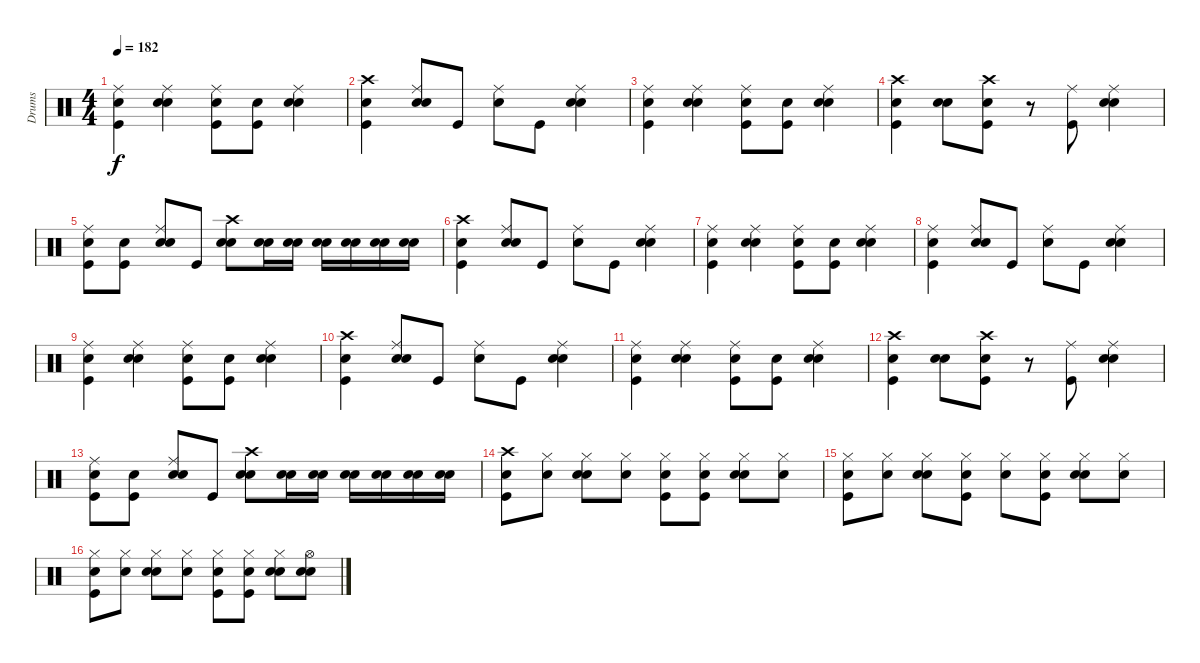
\track ("Drums" "Drums") {instrument percussion}
\staff {score}
\articulation defaults
\ts (4 4)
\tempo 182
\clef neutral
\ks c
("Snare (hit)" "Kick (hit)" "Ride (middle)").4{dy f} ("Snare (hit)" "Electric Snare (hit)" "Ride (middle)").4 ("Snare (hit)" "Kick (hit)" "Ride (middle)").8 ("Snare (hit)" "Kick (hit)").8 ("Snare (hit)" "Electric Snare (hit)" "Ride (middle)").4 |
("Snare (hit)" "Kick (hit)" "Crash high (hit)").4 ("Snare (hit)" "Electric Snare (hit)" "Ride (middle)").8 "Kick (hit)".8 ("Snare (hit)" "Ride (middle)").8 "Kick (hit)".8 ("Snare (hit)" "Electric Snare (hit)" "Ride (middle)").4 |
("Snare (hit)" "Kick (hit)" "Ride (middle)").4 ("Snare (hit)" "Electric Snare (hit)" "Ride (middle)").4 ("Snare (hit)" "Kick (hit)" "Ride (middle)").8 ("Snare (hit)" "Kick (hit)").8 ("Snare (hit)" "Electric Snare (hit)" "Ride (middle)").4 |
("Snare (hit)" "Kick (hit)" "Crash high (hit)").4 ("Snare (hit)" "Electric Snare (hit)").8 ("Snare (hit)" "Kick (hit)" "Crash high (hit)").8 r.8 ("Kick (hit)" "Ride (middle)").8 ("Snare (hit)" "Electric Snare (hit)" "Ride (middle)").4 |
("Snare (hit)" "Kick (hit)" "Ride (middle)").8 ("Snare (hit)" "Kick (hit)").8 ("Snare (hit)" "Electric Snare (hit)" "Ride (middle)").8 "Kick (hit)".8 ("Snare (hit)" "Electric Snare (hit)" "Crash high (hit)").8 ("Snare (hit)" "Electric Snare (hit)").16 ("Snare (hit)" "Electric Snare (hit)").16 ("Snare (hit)" "Electric Snare (hit)").16 ("Snare (hit)" "Electric Snare (hit)").16 ("Snare (hit)" "Electric Snare (hit)").16 ("Snare (hit)" "Electric Snare (hit)").16 |
("Snare (hit)" "Kick (hit)" "Crash high (hit)").4 ("Snare (hit)" "Electric Snare (hit)" "Ride (middle)").8 "Kick (hit)".8 ("Snare (hit)" "Ride (middle)").8 "Kick (hit)".8 ("Snare (hit)" "Electric Snare (hit)" "Ride (middle)").4 |
("Snare (hit)" "Kick (hit)" "Ride (middle)").4 ("Snare (hit)" "Electric Snare (hit)" "Ride (middle)").4 ("Snare (hit)" "Kick (hit)" "Ride (middle)").8 ("Snare (hit)" "Kick (hit)").8 ("Snare (hit)" "Electric Snare (hit)" "Ride (middle)").4 |
("Snare (hit)" "Kick (hit)" "Ride (middle)").4 ("Snare (hit)" "Electric Snare (hit)" "Ride (middle)").8 "Kick (hit)".8 ("Snare (hit)" "Ride (middle)").8 "Kick (hit)".8 ("Snare (hit)" "Electric Snare (hit)" "Ride (middle)").4 |
("Snare (hit)" "Kick (hit)" "Ride (middle)").4 ("Snare (hit)" "Electric Snare (hit)" "Ride (middle)").4 ("Snare (hit)" "Kick (hit)" "Ride (middle)").8 ("Snare (hit)" "Kick (hit)").8 ("Snare (hit)" "Electric Snare (hit)" "Ride (middle)").4 |
("Snare (hit)" "Kick (hit)" "Crash high (hit)").4 ("Snare (hit)" "Electric Snare (hit)" "Ride (middle)").8 "Kick (hit)".8 ("Snare (hit)" "Ride (middle)").8 "Kick (hit)".8 ("Snare (hit)" "Electric Snare (hit)" "Ride (middle)").4 |
("Snare (hit)" "Kick (hit)" "Ride (middle)").4 ("Snare (hit)" "Electric Snare (hit)" "Ride (middle)").4 ("Snare (hit)" "Kick (hit)" "Ride (middle)").8 ("Snare (hit)" "Kick (hit)").8 ("Snare (hit)" "Electric Snare (hit)" "Ride (middle)").4 |
("Snare (hit)" "Kick (hit)" "Crash high (hit)").4 ("Snare (hit)" "Electric Snare (hit)").8 ("Snare (hit)" "Kick (hit)" "Crash high (hit)").8 r.8 ("Kick (hit)" "Ride (middle)").8 ("Snare (hit)" "Electric Snare (hit)" "Ride (middle)").4 |
("Snare (hit)" "Kick (hit)" "Ride (middle)").8 ("Snare (hit)" "Kick (hit)").8 ("Snare (hit)" "Electric Snare (hit)" "Ride (middle)").8 "Kick (hit)".8 ("Snare (hit)" "Electric Snare (hit)" "Crash high (hit)").8 ("Snare (hit)" "Electric Snare (hit)").16 ("Snare (hit)" "Electric Snare (hit)").16 ("Snare (hit)" "Electric Snare (hit)").16 ("Snare (hit)" "Electric Snare (hit)").16 ("Snare (hit)" "Electric Snare (hit)").16 ("Snare (hit)" "Electric Snare (hit)").16 |
("Snare (hit)" "Kick (hit)" "Crash high (hit)").8 ("Snare (hit)" "Hi-Hat (closed)").8 ("Snare (hit)" "Electric Snare (hit)" "Hi-Hat (closed)").8 ("Snare (hit)" "Hi-Hat (closed)").8 ("Snare (hit)" "Kick (hit)" "Hi-Hat (closed)").8 ("Snare (hit)" "Kick (hit)" "Hi-Hat (closed)").8 ("Snare (hit)" "Electric Snare (hit)" "Hi-Hat (closed)").8 ("Snare (hit)" "Hi-Hat (closed)").8 |
("Snare (hit)" "Kick (hit)" "Hi-Hat (closed)").8 ("Snare (hit)" "Hi-Hat (closed)").8 ("Snare (hit)" "Electric Snare (hit)" "Hi-Hat (closed)").8 ("Snare (hit)" "Kick (hit)" "Hi-Hat (closed)").8 ("Snare (hit)" "Hi-Hat (closed)").8 ("Snare (hit)" "Kick (hit)" "Hi-Hat (closed)").8 ("Snare (hit)" "Electric Snare (hit)" "Hi-Hat (closed)").8 ("Snare (hit)" "Hi-Hat (closed)").8 |
("Snare (hit)" "Kick (hit)" "Hi-Hat (closed)").8 ("Snare (hit)" "Hi-Hat (closed)").8 ("Snare (hit)" "Electric Snare (hit)" "Hi-Hat (closed)").8 ("Snare (hit)" "Hi-Hat (closed)").8 ("Snare (hit)" "Kick (hit)" "Hi-Hat (closed)").8 ("Snare (hit)" "Kick (hit)" "Hi-Hat (closed)").8 ("Snare (hit)" "Electric Snare (hit)" "Hi-Hat (closed)").8 ("Snare (hit)" "Electric Snare (hit)" "Hi-Hat (open)").8
